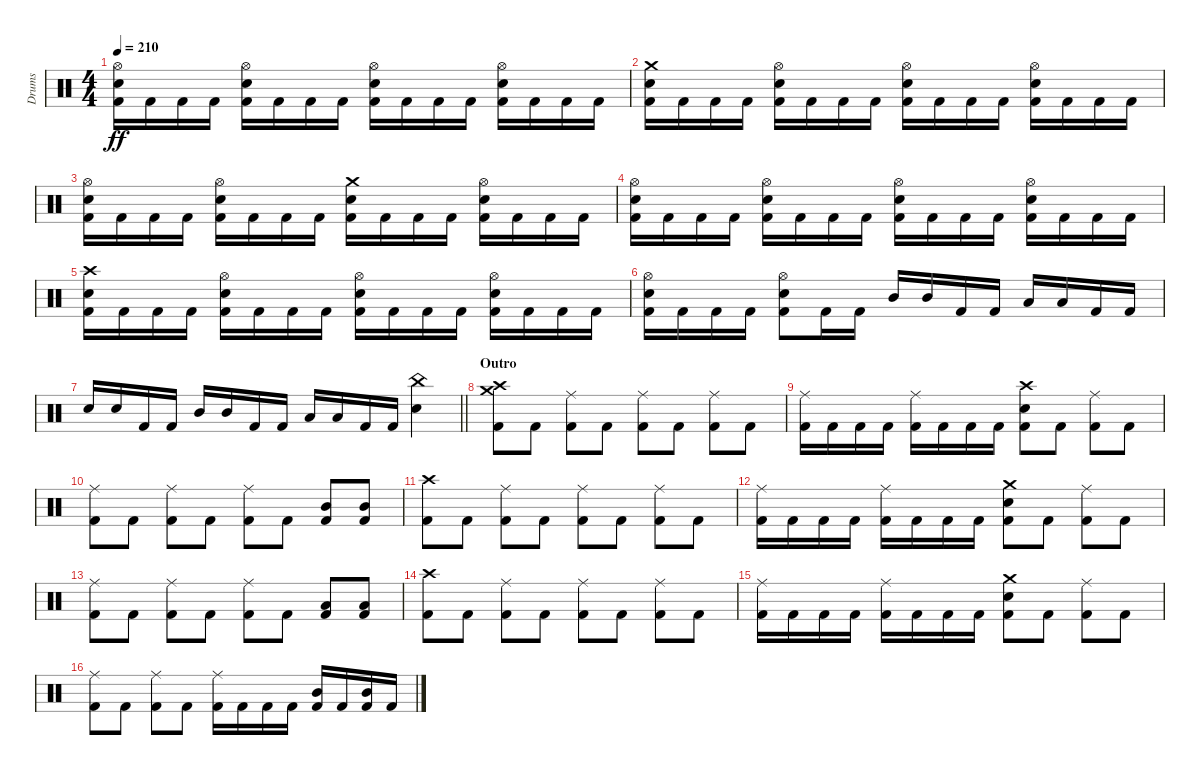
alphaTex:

\track ("Drums" "Drums") {instrument percussion}
\staff {score}
\articulation defaults
\ts (4 4)
\tempo 210
\clef neutral
\ks c
("Hi-Hat (open)" "Snare (hit) 2" "Kick (hit) 2").16{dy ff} "Kick (hit) 2".16 "Kick (hit) 2".16 "Kick (hit) 2".16 ("Hi-Hat (open)" "Snare (hit) 2" "Kick (hit) 2").16 "Kick (hit) 2".16 "Kick (hit) 2".16 "Kick (hit) 2".16 ("Hi-Hat (open)" "Snare (hit) 2" "Kick (hit) 2").16 "Kick (hit) 2".16 "Kick (hit) 2".16 "Kick (hit) 2".16 ("Hi-Hat (open)" "Snare (hit) 2" "Kick (hit) 2").16 "Kick (hit) 2".16 "Kick (hit) 2".16 "Kick (hit) 2".16 |
("Crash medium (hit)" "Snare (hit) 2" "Kick (hit) 2").16 "Kick (hit) 2".16 "Kick (hit) 2".16 "Kick (hit) 2".16 ("Hi-Hat (open)" "Snare (hit) 2" "Kick (hit) 2").16 "Kick (hit) 2".16 "Kick (hit) 2".16 "Kick (hit) 2".16 ("Hi-Hat (open)" "Snare (hit) 2" "Kick (hit) 2").16 "Kick (hit) 2".16 "Kick (hit) 2".16 "Kick (hit) 2".16 ("Hi-Hat (open)" "Snare (hit) 2" "Kick (hit) 2").16 "Kick (hit) 2".16 "Kick (hit) 2".16 "Kick (hit) 2".16 |
("Hi-Hat (open)" "Snare (hit) 2" "Kick (hit) 2").16 "Kick (hit) 2".16 "Kick (hit) 2".16 "Kick (hit) 2".16 ("Hi-Hat (open)" "Snare (hit) 2" "Kick (hit) 2").16 "Kick (hit) 2".16 "Kick (hit) 2".16 "Kick (hit) 2".16 ("Crash medium (hit)" "Snare (hit) 2" "Kick (hit) 2").16 "Kick (hit) 2".16 "Kick (hit) 2".16 "Kick (hit) 2".16 ("Hi-Hat (open)" "Snare (hit) 2" "Kick (hit) 2").16 "Kick (hit) 2".16 "Kick (hit) 2".16 "Kick (hit) 2".16 |
("Hi-Hat (open)" "Snare (hit) 2" "Kick (hit) 2").16 "Kick (hit) 2".16 "Kick (hit) 2".16 "Kick (hit) 2".16 ("Hi-Hat (open)" "Snare (hit) 2" "Kick (hit) 2").16 "Kick (hit) 2".16 "Kick (hit) 2".16 "Kick (hit) 2".16 ("Hi-Hat (open)" "Snare (hit) 2" "Kick (hit) 2").16 "Kick (hit) 2".16 "Kick (hit) 2".16 "Kick (hit) 2".16 ("Hi-Hat (open)" "Snare (hit) 2" "Kick (hit) 2").16 "Kick (hit) 2".16 "Kick (hit) 2".16 "Kick (hit) 2".16 |
("Crash high (hit)" "Snare (hit) 2" "Kick (hit) 2").16 "Kick (hit) 2".16 "Kick (hit) 2".16 "Kick (hit) 2".16 ("Hi-Hat (open)" "Snare (hit) 2" "Kick (hit) 2").16 "Kick (hit) 2".16 "Kick (hit) 2".16 "Kick (hit) 2".16 ("Hi-Hat (open)" "Snare (hit) 2" "Kick (hit) 2").16 "Kick (hit) 2".16 "Kick (hit) 2".16 "Kick (hit) 2".16 ("Hi-Hat (open)" "Snare (hit) 2" "Kick (hit) 2").16 "Kick (hit) 2".16 "Kick (hit) 2".16 "Kick (hit) 2".16 |
("Hi-Hat (open)" "Snare (hit) 2" "Kick (hit) 2").16 "Kick (hit) 2".16 "Kick (hit) 2".16 "Kick (hit) 2".16 ("Hi-Hat (open)" "Snare (hit) 2" "Kick (hit) 2").8 "Kick (hit) 2".16 "Kick (hit) 2".16 "Mid Tom (hit)".16 "Mid Tom (hit)".16 "Kick (hit) 2".16 "Kick (hit) 2".16 "Low Tom (hit)".16 "Low Tom (hit)".16 "Kick (hit) 2".16 "Kick (hit) 2".16 |
\barLineRight lightlight "Snare (hit) 2".16 "Snare (hit) 2".16 "Kick (hit) 2".16 "Kick (hit) 2".16 "Mid Tom (hit)".16 "Mid Tom (hit)".16 "Kick (hit) 2".16 "Kick (hit) 2".16 "Low Tom (hit)".16 "Low Tom (hit)".16 "Kick (hit) 2".16 "Kick (hit) 2".16
("China (hit)" "Snare (hit) 2").4 |
\section ("" "Outro")
("Crash medium (hit)" "Crash high (hit)" "Kick (hit) 2").8 "Kick (hit) 2".8 ("Ride (middle)" "Kick (hit) 2").8 "Kick (hit) 2".8 ("Ride (middle)" "Kick (hit) 2").8 "Kick (hit) 2".8 ("Ride (middle)" "Kick (hit) 2").8 "Kick (hit) 2".8 |
("Ride (middle)" "Kick (hit) 2").16 "Kick (hit) 2".16 "Kick (hit) 2".16 "Kick (hit) 2".16 ("Ride (middle)" "Kick (hit) 2").16 "Kick (hit) 2".16 "Kick (hit) 2".16 "Kick (hit) 2".16 ("Crash high (hit)" "Snare (hit) 2" "Kick (hit) 2").8 "Kick (hit) 2".8 ("Ride (middle)" "Kick (hit) 2").8 "Kick (hit) 2".8 |
("Ride (middle)" "Kick (hit) 2").8 "Kick (hit) 2".8 ("Ride (middle)" "Kick (hit) 2").8 "Kick (hit) 2".8 ("Ride (middle)" "Kick (hit) 2").8 "Kick (hit) 2".8 ("Mid Tom (hit)" "Kick (hit) 2").8 ("Mid Tom (hit)" "Kick (hit) 2").8 |
("Crash high (hit)" "Kick (hit) 2").8 "Kick (hit) 2".8 ("Ride (middle)" "Kick (hit) 2").8 "Kick (hit) 2".8 ("Ride (middle)" "Kick (hit) 2").8 "Kick (hit) 2".8 ("Ride (middle)" "Kick (hit) 2").8 "Kick (hit) 2".8 |
("Ride (middle)" "Kick (hit) 2").16 "Kick (hit) 2".16 "Kick (hit) 2".16 "Kick (hit) 2".16 ("Ride (middle)" "Kick (hit) 2").16 "Kick (hit) 2".16 "Kick (hit) 2".16 "Kick (hit) 2".16 ("Crash medium (hit)" "Snare (hit) 2" "Kick (hit) 2").8 "Kick (hit) 2".8 ("Ride (middle)" "Kick (hit) 2").8 "Kick (hit) 2".8 |
("Ride (middle)" "Kick (hit) 2").8 "Kick (hit) 2".8 ("Ride (middle)" "Kick (hit) 2").8 "Kick (hit) 2".8 ("Ride (middle)" "Kick (hit) 2").8 "Kick (hit) 2".8 ("Low Tom (hit)" "Kick (hit) 2").8 ("Low Tom (hit)" "Kick (hit) 2").8 |
("Crash high (hit)" "Kick (hit) 2").8 "Kick (hit) 2".8 ("Ride (middle)" "Kick (hit) 2").8 "Kick (hit) 2".8 ("Ride (middle)" "Kick (hit) 2").8 "Kick (hit) 2".8 ("Ride (middle)" "Kick (hit) 2").8 "Kick (hit) 2".8 |
("Ride (middle)" "Kick (hit) 2").16 "Kick (hit) 2".16 "Kick (hit) 2".16 "Kick (hit) 2".16 ("Ride (middle)" "Kick (hit) 2").16 "Kick (hit) 2".16 "Kick (hit) 2".16 "Kick (hit) 2".16 ("Crash medium (hit)" "Snare (hit) 2" "Kick (hit) 2").8 "Kick (hit) 2".8 ("Ride (middle)" "Kick (hit) 2").8 "Kick (hit) 2".8 |
("Ride (middle)" "Kick (hit) 2").8 "Kick (hit) 2".8 ("Ride (middle)" "Kick (hit) 2").8 "Kick (hit) 2".8 ("Ride (middle)" "Kick (hit) 2").16 "Kick (hit) 2".16 "Kick (hit) 2".16 "Kick (hit) 2".16 ("Mid Tom (hit)" "Kick (hit) 2").16 "Kick (hit) 2".16 ("Mid Tom (hit)" "Kick (hit) 2").16 "Kick (hit) 2".16
